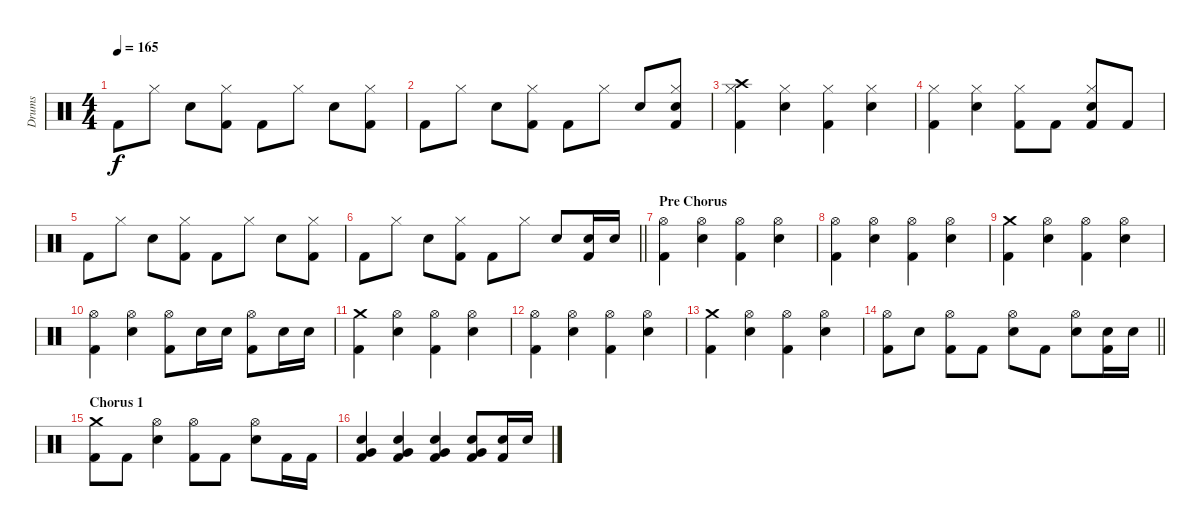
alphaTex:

\track ("Drums" "Drums") {instrument percussion}
\staff {score}
\articulation defaults
\ts (4 4)
\tempo 165
\clef neutral
\ks c "Kick (hit) 2".8{dy f} "Hi-Hat (closed)".8 "Electric Snare (hit)".8
("Hi-Hat (closed)" "Kick (hit) 2").8 "Kick (hit) 2".8 "Hi-Hat (closed)".8 "Electric Snare (hit)".8 ("Hi-Hat (closed)" "Kick (hit) 2").8 |
"Kick (hit) 2".8 "Hi-Hat (closed)".8 "Electric Snare (hit)".8 ("Hi-Hat (closed)" "Kick (hit) 2").8 "Kick (hit) 2".8 "Hi-Hat (closed)".8 "Electric Snare (hit)".8 ("Hi-Hat (closed)" "Electric Snare (hit)" "Kick (hit) 2").8 |
("Hi-Hat (closed)" "Crash high (hit)" "Kick (hit) 2").4 ("Hi-Hat (closed)" "Electric Snare (hit)").4 ("Hi-Hat (closed)" "Kick (hit) 2").4 ("Hi-Hat (closed)" "Electric Snare (hit)").4 |
("Hi-Hat (closed)" "Kick (hit) 2").4 ("Hi-Hat (closed)" "Electric Snare (hit)").4 ("Hi-Hat (closed)" "Kick (hit) 2").8 "Kick (hit) 2".8 ("Hi-Hat (closed)" "Electric Snare (hit)" "Kick (hit) 2").8 "Kick (hit) 2".8 |
"Kick (hit) 2".8 "Hi-Hat (closed)".8 "Electric Snare (hit)".8 ("Hi-Hat (closed)" "Kick (hit) 2").8 "Kick (hit) 2".8 "Hi-Hat (closed)".8 "Electric Snare (hit)".8 ("Hi-Hat (closed)" "Kick (hit) 2").8 |
\barLineRight lightlight "Kick (hit) 2".8 "Hi-Hat (closed)".8 "Electric Snare (hit)".8
("Hi-Hat (closed)" "Kick (hit) 2").8 "Kick (hit) 2".8 "Hi-Hat (closed)".8 "Electric Snare (hit)".8 ("Electric Snare (hit)" "Kick (hit) 2").16 "Electric Snare (hit)".16 |
\section ("" "Pre Chorus")
("Hi-Hat (open)" "Kick (hit) 2").4 ("Hi-Hat (open)" "Electric Snare (hit)").4 ("Hi-Hat (open)" "Kick (hit) 2").4 ("Hi-Hat (open)" "Electric Snare (hit)").4 |
("Hi-Hat (open)" "Kick (hit) 2").4 ("Hi-Hat (open)" "Electric Snare (hit)").4 ("Hi-Hat (open)" "Kick (hit) 2").4 ("Hi-Hat (open)" "Electric Snare (hit)").4 |
("Crash medium (hit)" "Kick (hit) 2").4 ("Hi-Hat (open)" "Electric Snare (hit)").4 ("Hi-Hat (open)" "Kick (hit) 2").4 ("Hi-Hat (open)" "Electric Snare (hit)").4 |
("Hi-Hat (open)" "Kick (hit) 2").4 ("Hi-Hat (open)" "Electric Snare (hit)").4 ("Hi-Hat (open)" "Kick (hit) 2").8 "Electric Snare (hit)".16 "Electric Snare (hit)".16 ("Hi-Hat (open)" "Kick (hit) 2").8 "Electric Snare (hit)".16 "Electric Snare (hit)".16 |
("Crash medium (hit)" "Kick (hit) 2").4 ("Hi-Hat (open)" "Electric Snare (hit)").4 ("Hi-Hat (open)" "Kick (hit) 2").4 ("Hi-Hat (open)" "Electric Snare (hit)").4 |
("Hi-Hat (open)" "Kick (hit) 2").4 ("Hi-Hat (open)" "Electric Snare (hit)").4 ("Hi-Hat (open)" "Kick (hit) 2").4 ("Hi-Hat (open)" "Electric Snare (hit)").4 |
("Crash medium (hit)" "Kick (hit) 2").4 ("Hi-Hat (open)" "Electric Snare (hit)").4 ("Hi-Hat (open)" "Kick (hit) 2").4 ("Hi-Hat (open)" "Electric Snare (hit)").4 |
\barLineRight lightlight
("Hi-Hat (open)" "Kick (hit) 2").8 "Electric Snare (hit)".8 ("Hi-Hat (open)" "Kick (hit) 2").8 "Kick (hit) 2".8 ("Hi-Hat (open)" "Electric Snare (hit)").8 "Kick (hit) 2".8 ("Hi-Hat (open)" "Electric Snare (hit)").8 ("Electric Snare (hit)" "Kick (hit) 2").16 "Electric Snare (hit)".16 |
\section ("" "Chorus 1")
("Crash medium (hit)" "Kick (hit) 2").8 "Kick (hit) 2".8 ("Hi-Hat (open)" "Electric Snare (hit)").4 ("Hi-Hat (open)" "Kick (hit) 2").8 "Kick (hit) 2".8 ("Hi-Hat (open)" "Electric Snare (hit)").8 "Kick (hit) 2".16 "Kick (hit) 2".16 |
("Very Low Tom (hit)" "Electric Snare (hit)" "Kick (hit) 2").4 ("Very Low Tom (hit)" "Electric Snare (hit)" "Kick (hit) 2").4 ("Very Low Tom (hit)" "Electric Snare (hit)" "Kick (hit) 2").4 ("Very Low Tom (hit)" "Electric Snare (hit)" "Kick (hit) 2").8 ("Electric Snare (hit)" "Kick (hit) 2").16 "Electric Snare (hit)".16
